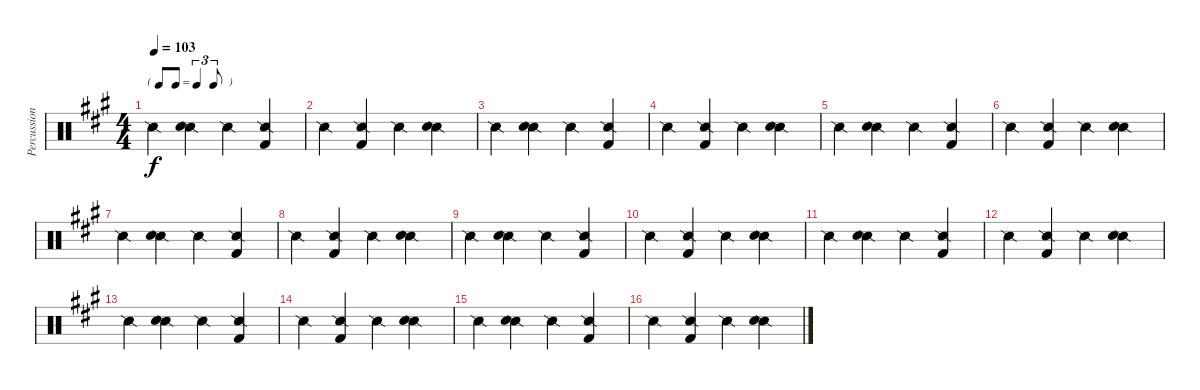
\track ("Percussions" "Percussion") {instrument percussion}
\staff {score}
\articulation defaults
\ts (4 4)
\tf triplet8th
\tempo 103
\clef neutral
\ks a "Snare (side stick) 2".4{dy f}
("Snare (side stick) 2" "Snare (hit) 2").4 "Snare (side stick) 2".4 ("Snare (side stick) 2" "Kick (hit) 2").4 |
"Snare (side stick) 2".4 ("Snare (side stick) 2" "Kick (hit) 2").4 "Snare (side stick) 2".4 ("Snare (side stick) 2" "Snare (hit) 2").4 |
"Snare (side stick) 2".4 ("Snare (side stick) 2" "Snare (hit) 2").4 "Snare (side stick) 2".4 ("Snare (side stick) 2" "Kick (hit) 2").4 |
"Snare (side stick) 2".4 ("Snare (side stick) 2" "Kick (hit) 2").4 "Snare (side stick) 2".4 ("Snare (side stick) 2" "Snare (hit) 2").4 |
"Snare (side stick) 2".4 ("Snare (side stick) 2" "Snare (hit) 2").4 "Snare (side stick) 2".4 ("Snare (side stick) 2" "Kick (hit) 2").4 |
"Snare (side stick) 2".4 ("Snare (side stick) 2" "Kick (hit) 2").4 "Snare (side stick) 2".4 ("Snare (side stick) 2" "Snare (hit) 2").4 |
"Snare (side stick) 2".4 ("Snare (side stick) 2" "Snare (hit) 2").4 "Snare (side stick) 2".4 ("Snare (side stick) 2" "Kick (hit) 2").4 |
"Snare (side stick) 2".4 ("Snare (side stick) 2" "Kick (hit) 2").4 "Snare (side stick) 2".4 ("Snare (side stick) 2" "Snare (hit) 2").4 |
"Snare (side stick) 2".4 ("Snare (side stick) 2" "Snare (hit) 2").4 "Snare (side stick) 2".4 ("Snare (side stick) 2" "Kick (hit) 2").4 |
"Snare (side stick) 2".4 ("Snare (side stick) 2" "Kick (hit) 2").4 "Snare (side stick) 2".4 ("Snare (side stick) 2" "Snare (hit) 2").4 |
"Snare (side stick) 2".4 ("Snare (side stick) 2" "Snare (hit) 2").4 "Snare (side stick) 2".4 ("Snare (side stick) 2" "Kick (hit) 2").4 |
"Snare (side stick) 2".4 ("Snare (side stick) 2" "Kick (hit) 2").4 "Snare (side stick) 2".4 ("Snare (side stick) 2" "Snare (hit) 2").4 |
"Snare (side stick) 2".4 ("Snare (side stick) 2" "Snare (hit) 2").4 "Snare (side stick) 2".4 ("Snare (side stick) 2" "Kick (hit) 2").4 |
"Snare (side stick) 2".4 ("Snare (side stick) 2" "Kick (hit) 2").4 "Snare (side stick) 2".4 ("Snare (side stick) 2" "Snare (hit) 2").4 |
"Snare (side stick) 2".4 ("Snare (side stick) 2" "Snare (hit) 2").4 "Snare (side stick) 2".4 ("Snare (side stick) 2" "Kick (hit) 2").4 |
"Snare (side stick) 2".4 ("Snare (side stick) 2" "Kick (hit) 2").4 "Snare (side stick) 2".4 ("Snare (side stick) 2" "Snare (hit) 2").4
